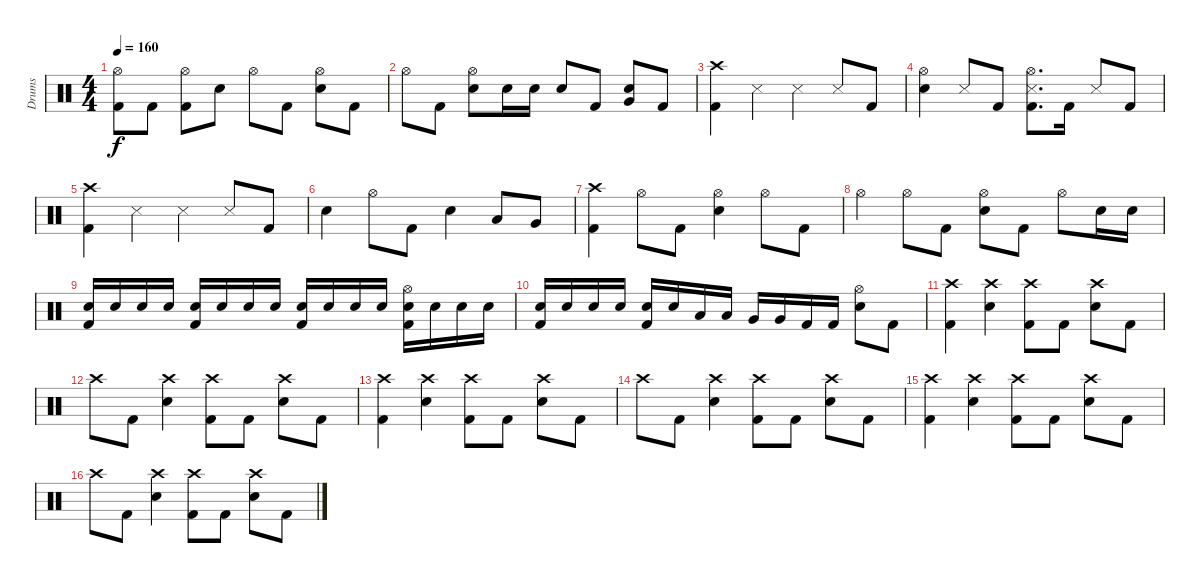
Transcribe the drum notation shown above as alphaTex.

\track ("Drums" "Drums") {instrument percussion}
\staff {score}
\articulation defaults
\ts (4 4)
\tempo 160
\clef neutral
\ks c
("Hi-Hat (open)" "Kick (hit) 2").8{dy f} "Kick (hit) 2".8 ("Hi-Hat (open)" "Kick (hit) 2").8 "Electric Snare (hit)".8 "Hi-Hat (open)".8 "Kick (hit) 2".8 ("Hi-Hat (open)" "Electric Snare (hit)").8 "Kick (hit) 2".8 |
"Hi-Hat (open)".8 "Kick (hit) 2".8 ("Hi-Hat (open)" "Electric Snare (hit)").8 "Electric Snare (hit)".16 "Electric Snare (hit)".16 "Electric Snare (hit)".8 "Kick (hit) 2".8 ("Very Low Tom (hit)" "Electric Snare (hit)").8 "Kick (hit) 2".8 |
("Crash high (hit)" "Kick (hit) 2").4 "Snare (side stick) 3".4 "Snare (side stick) 3".4 "Snare (side stick) 3".8 "Kick (hit) 2".8 |
("Hi-Hat (open)" "Electric Snare (hit)").4 "Snare (side stick) 3".8 "Kick (hit) 2".8 ("Snare (side stick) 3" "Hi-Hat (open)" "Kick (hit) 2").8{d} "Kick (hit) 2".16 "Snare (side stick) 3".8 "Kick (hit) 2".8 |
("Crash high (hit)" "Kick (hit) 2").4 "Snare (side stick) 3".4 "Snare (side stick) 3".4 "Snare (side stick) 3".8 "Kick (hit) 2".8 |
"Electric Snare (hit)".4 "Hi-Hat (open)".8 "Kick (hit) 2".8 "Electric Snare (hit)".4 "Low Tom (hit)".8 "Very Low Tom (hit)".8 |
("Crash high (hit)" "Kick (hit) 2").4 "Hi-Hat (open)".8 "Kick (hit) 2".8 ("Hi-Hat (open)" "Electric Snare (hit)").4 "Hi-Hat (open)".8 "Kick (hit) 2".8 |
"Hi-Hat (open)".4 "Hi-Hat (open)".8 "Kick (hit) 2".8 ("Hi-Hat (open)" "Electric Snare (hit)").8 "Kick (hit) 2".8 "Hi-Hat (open)".8 "Electric Snare (hit)".16 "Electric Snare (hit)".16 |
("Electric Snare (hit)" "Kick (hit) 2").16 "Electric Snare (hit)".16 "Electric Snare (hit)".16 "Electric Snare (hit)".16 ("Electric Snare (hit)" "Kick (hit) 2").16 "Electric Snare (hit)".16 "Electric Snare (hit)".16 "Electric Snare (hit)".16 ("Electric Snare (hit)" "Kick (hit) 2").16 "Electric Snare (hit)".16 "Electric Snare (hit)".16 "Electric Snare (hit)".16 ("Hi-Hat (open)" "Electric Snare (hit)" "Kick (hit) 2").16 "Electric Snare (hit)".16 "Electric Snare (hit)".16 "Electric Snare (hit)".16 |
("Electric Snare (hit)" "Kick (hit) 2").16 "Electric Snare (hit)".16 "Electric Snare (hit)".16 "Electric Snare (hit)".16 ("Electric Snare (hit)" "Kick (hit) 2").16 "Electric Snare (hit)".16 "Low Tom (hit)".16 "Low Tom (hit)".16 "Very Low Tom (hit)".16 "Very Low Tom (hit)".16 "Kick (hit) 2".16 "Kick (hit) 2".16 ("Hi-Hat (open)" "Electric Snare (hit)").8 "Kick (hit) 2".8 |
("Crash high (hit)" "Kick (hit) 2").4 ("Crash high (hit)" "Electric Snare (hit)").4 ("Crash high (hit)" "Kick (hit) 2").8 "Kick (hit) 2".8 ("Crash high (hit)" "Electric Snare (hit)").8 "Kick (hit) 2".8 |
"Crash high (hit)".8 "Kick (hit) 2".8 ("Crash high (hit)" "Electric Snare (hit)").4 ("Crash high (hit)" "Kick (hit) 2").8 "Kick (hit) 2".8 ("Crash high (hit)" "Electric Snare (hit)").8 "Kick (hit) 2".8 |
("Crash high (hit)" "Kick (hit) 2").4 ("Crash high (hit)" "Electric Snare (hit)").4 ("Crash high (hit)" "Kick (hit) 2").8 "Kick (hit) 2".8 ("Crash high (hit)" "Electric Snare (hit)").8 "Kick (hit) 2".8 |
"Crash high (hit)".8 "Kick (hit) 2".8 ("Crash high (hit)" "Electric Snare (hit)").4 ("Crash high (hit)" "Kick (hit) 2").8 "Kick (hit) 2".8 ("Crash high (hit)" "Electric Snare (hit)").8 "Kick (hit) 2".8 |
("Crash high (hit)" "Kick (hit) 2").4 ("Crash high (hit)" "Electric Snare (hit)").4 ("Crash high (hit)" "Kick (hit) 2").8 "Kick (hit) 2".8 ("Crash high (hit)" "Electric Snare (hit)").8 "Kick (hit) 2".8 |
"Crash high (hit)".8 "Kick (hit) 2".8 ("Crash high (hit)" "Electric Snare (hit)").4 ("Crash high (hit)" "Kick (hit) 2").8 "Kick (hit) 2".8 ("Crash high (hit)" "Electric Snare (hit)").8 "Kick (hit) 2".8
